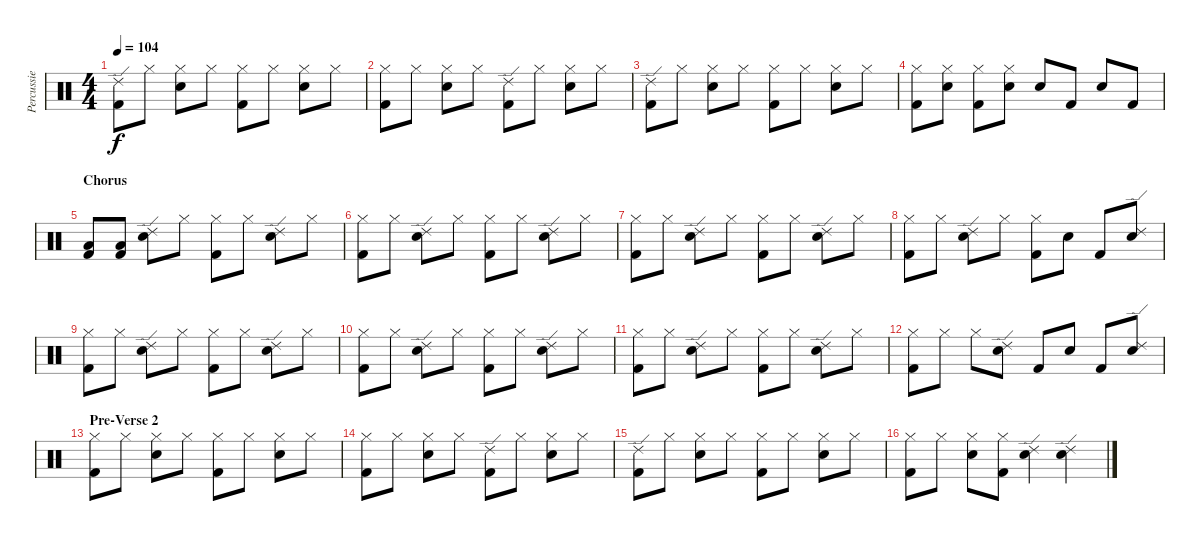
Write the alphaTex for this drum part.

\track ("Percussie" "Percussie") {instrument percussion}
\staff {score}
\articulation defaults
\ts (4 4)
\tempo 104
\clef neutral
\ks c
("Kick (hit) 2" "Ride (edge) 2").8{dy f} "Hi-Hat (closed)".8 ("Hi-Hat (closed)" "Snare (hit) 2").8 "Hi-Hat (closed)".8 ("Hi-Hat (closed)" "Kick (hit) 2").8 "Hi-Hat (closed)".8 ("Hi-Hat (closed)" "Snare (hit) 2").8 "Hi-Hat (closed)".8 |
("Hi-Hat (closed)" "Kick (hit) 2").8 "Hi-Hat (closed)".8 ("Hi-Hat (closed)" "Snare (hit) 2").8 "Hi-Hat (closed)".8 ("Kick (hit) 2" "Ride (edge) 2").8 "Hi-Hat (closed)".8 ("Hi-Hat (closed)" "Snare (hit) 2").8 "Hi-Hat (closed)".8 |
("Kick (hit) 2" "Ride (edge) 2").8 "Hi-Hat (closed)".8 ("Hi-Hat (closed)" "Snare (hit) 2").8 "Hi-Hat (closed)".8 ("Hi-Hat (closed)" "Kick (hit) 2").8 "Hi-Hat (closed)".8 ("Hi-Hat (closed)" "Snare (hit) 2").8 "Hi-Hat (closed)".8 |
("Hi-Hat (closed)" "Kick (hit) 2").8 ("Hi-Hat (closed)" "Snare (hit) 2").8 ("Hi-Hat (closed)" "Kick (hit) 2").8 ("Hi-Hat (closed)" "Snare (hit) 2").8 "Snare (hit) 2".8 "Kick (hit) 2".8 "Snare (hit) 2".8 "Kick (hit) 2".8 |
\section ("" "Chorus")
("Kick (hit) 2" "Low Floor Tom (hit)").8 ("Kick (hit) 2" "Low Floor Tom (hit)").8 ("Snare (hit) 2" "Ride (edge) 2").8 "Hi-Hat (closed)".8 ("Hi-Hat (closed)" "Kick (hit) 2").8 "Hi-Hat (closed)".8 ("Snare (hit) 2" "Ride (edge) 2").8 "Hi-Hat (closed)".8 |
("Hi-Hat (closed)" "Kick (hit) 2").8 "Hi-Hat (closed)".8 ("Snare (hit) 2" "Ride (edge) 2").8 "Hi-Hat (closed)".8 ("Hi-Hat (closed)" "Kick (hit) 2").8 "Hi-Hat (closed)".8 ("Snare (hit) 2" "Ride (edge) 2").8 "Hi-Hat (closed)".8 |
("Hi-Hat (closed)" "Kick (hit) 2").8 "Hi-Hat (closed)".8 ("Snare (hit) 2" "Ride (edge) 2").8 "Hi-Hat (closed)".8 ("Hi-Hat (closed)" "Kick (hit) 2").8 "Hi-Hat (closed)".8 ("Snare (hit) 2" "Ride (edge) 2").8 "Hi-Hat (closed)".8 |
("Hi-Hat (closed)" "Kick (hit) 2").8 "Hi-Hat (closed)".8 ("Snare (hit) 2" "Ride (edge) 2").8 "Hi-Hat (closed)".8 ("Hi-Hat (closed)" "Kick (hit) 2").8 "Snare (hit) 2".8 "Kick (hit) 2".8 ("Snare (hit) 2" "Ride (edge) 2").8 |
("Hi-Hat (closed)" "Kick (hit) 2").8 "Hi-Hat (closed)".8 ("Snare (hit) 2" "Ride (edge) 2").8 "Hi-Hat (closed)".8 ("Hi-Hat (closed)" "Kick (hit) 2").8 "Hi-Hat (closed)".8 ("Snare (hit) 2" "Ride (edge) 2").8 "Hi-Hat (closed)".8 |
("Hi-Hat (closed)" "Kick (hit) 2").8 "Hi-Hat (closed)".8 ("Snare (hit) 2" "Ride (edge) 2").8 "Hi-Hat (closed)".8 ("Hi-Hat (closed)" "Kick (hit) 2").8 "Hi-Hat (closed)".8 ("Snare (hit) 2" "Ride (edge) 2").8 "Hi-Hat (closed)".8 |
("Hi-Hat (closed)" "Kick (hit) 2").8 "Hi-Hat (closed)".8 ("Snare (hit) 2" "Ride (edge) 2").8 "Hi-Hat (closed)".8 ("Hi-Hat (closed)" "Kick (hit) 2").8 "Hi-Hat (closed)".8 ("Snare (hit) 2" "Ride (edge) 2").8 "Hi-Hat (closed)".8 |
("Hi-Hat (closed)" "Kick (hit) 2").8 "Hi-Hat (closed)".8 "Hi-Hat (closed)".8 ("Snare (hit) 2" "Ride (edge) 2").8 "Kick (hit) 2".8 "Snare (hit) 2".8 "Kick (hit) 2".8 ("Snare (hit) 2" "Ride (edge) 2").8 |
\section ("" "Pre-Verse 2")
("Hi-Hat (closed)" "Kick (hit) 2").8 "Hi-Hat (closed)".8 ("Hi-Hat (closed)" "Snare (hit) 2").8 "Hi-Hat (closed)".8 ("Hi-Hat (closed)" "Kick (hit) 2").8 "Hi-Hat (closed)".8 ("Hi-Hat (closed)" "Snare (hit) 2").8 "Hi-Hat (closed)".8 |
("Hi-Hat (closed)" "Kick (hit) 2").8 "Hi-Hat (closed)".8 ("Hi-Hat (closed)" "Snare (hit) 2").8 "Hi-Hat (closed)".8 ("Kick (hit) 2" "Ride (edge) 2").8 "Hi-Hat (closed)".8 ("Hi-Hat (closed)" "Snare (hit) 2").8 "Hi-Hat (closed)".8 |
("Kick (hit) 2" "Ride (edge) 2").8 "Hi-Hat (closed)".8 ("Hi-Hat (closed)" "Snare (hit) 2").8 "Hi-Hat (closed)".8 ("Hi-Hat (closed)" "Kick (hit) 2").8 "Hi-Hat (closed)".8 ("Hi-Hat (closed)" "Snare (hit) 2").8 "Hi-Hat (closed)".8 |
("Hi-Hat (closed)" "Kick (hit) 2").8 "Hi-Hat (closed)".8 ("Hi-Hat (closed)" "Snare (hit) 2").8 ("Hi-Hat (closed)" "Kick (hit) 2").8 ("Snare (hit) 2" "Ride (edge) 2").4 ("Snare (hit) 2" "Ride (edge) 2").4
